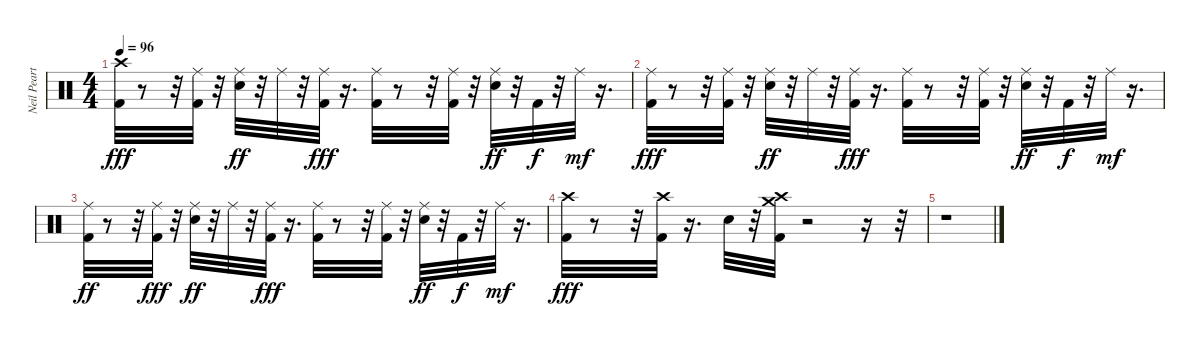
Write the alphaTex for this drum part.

\track ("Neil Peart" "Neil Peart") {instrument percussion}
\staff {score}
\articulation defaults
\ts (4 4)
\tempo 96
\clef neutral
\ks c
("Crash high (hit)" "Kick (hit) 2").32{dy fff} r.8 r.32 ("Ride (middle)" "Kick (hit) 2").32 r.32 ("Ride (middle)" "Snare (hit) 2").32{dy ff} r.32 "Ride (middle)".32 r.32 ("Ride (middle)" "Kick (hit) 2").32{dy fff} r.16{d} ("Ride (middle)" "Kick (hit) 2").32 r.8 r.32 ("Ride (middle)" "Kick (hit) 2").32 r.32 ("Ride (middle)" "Snare (hit) 2").32{dy ff} r.32 "Kick (hit) 2".32{dy f} r.32 "Ride (middle)".32{dy mf} r.16{d} |
("Ride (middle)" "Kick (hit) 2").32{dy fff} r.8 r.32 ("Ride (middle)" "Kick (hit) 2").32 r.32 ("Ride (middle)" "Snare (hit) 2").32{dy ff} r.32 "Ride (middle)".32 r.32 ("Ride (middle)" "Kick (hit) 2").32{dy fff} r.16{d} ("Ride (middle)" "Kick (hit) 2").32 r.8 r.32 ("Ride (middle)" "Kick (hit) 2").32 r.32 ("Ride (middle)" "Snare (hit) 2").32{dy ff} r.32 "Kick (hit) 2".32{dy f} r.32 "Ride (middle)".32{dy mf} r.16{d} |
("Kick (hit) 2" "Ride (middle)").32{dy ff} r.8 r.32 ("Kick (hit) 2" "Ride (middle)").32{dy fff} r.32 ("Snare (hit) 2" "Ride (middle)").32{dy ff} r.32 "Ride (middle)".32 r.32 ("Kick (hit) 2" "Ride (middle)").32{dy fff} r.16{d} ("Kick (hit) 2" "Ride (middle)").32 r.8 r.32 ("Kick (hit) 2" "Ride (middle)").32 r.32 ("Snare (hit) 2" "Ride (middle)").32{dy ff} r.32 "Kick (hit) 2".32{dy f} r.32 "Ride (middle)".32{dy mf} r.16{d} |
("Crash high (hit)" "Kick (hit) 2").32{dy fff} r.8 r.32 ("Crash high (hit)" "Kick (hit) 2").32 r.16{d} "Snare (hit) 2".32 r.32 ("Crash medium (hit)" "Crash high (hit)" "Kick (hit) 2").32 r.2 r.16 r.32 |
r.1
